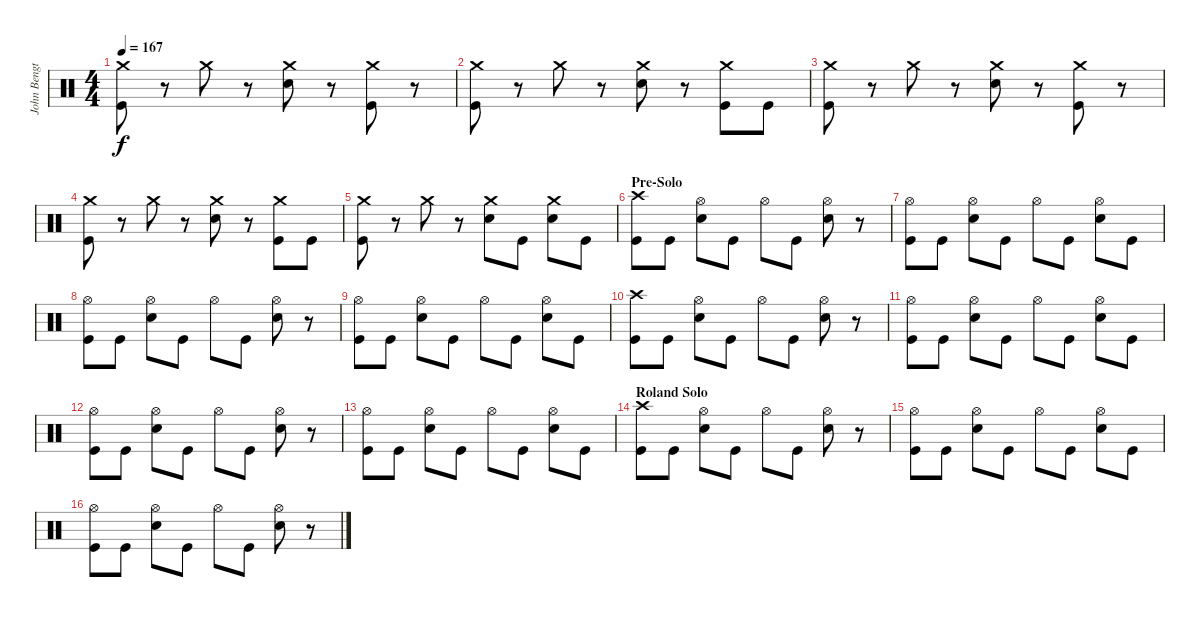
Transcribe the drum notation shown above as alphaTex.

\track ("John Bengtsson" "John Bengt") {instrument percussion}
\staff {score}
\articulation defaults
\ts (4 4)
\tempo 167
\clef neutral
\ks c
("Crash medium (hit)" "Kick (hit)").8{dy f} r.8 "Crash medium (hit)".8 r.8 ("Crash medium (hit)" "Snare (hit) 2").8 r.8 ("Crash medium (hit)" "Kick (hit)").8 r.8 |
("Crash medium (hit)" "Kick (hit)").8 r.8 "Crash medium (hit)".8 r.8 ("Crash medium (hit)" "Snare (hit) 2").8 r.8 ("Crash medium (hit)" "Kick (hit)").8 "Kick (hit)".8 |
("Crash medium (hit)" "Kick (hit)").8 r.8 "Crash medium (hit)".8 r.8 ("Crash medium (hit)" "Snare (hit) 2").8 r.8 ("Crash medium (hit)" "Kick (hit)").8 r.8 |
("Crash medium (hit)" "Kick (hit)").8 r.8 "Crash medium (hit)".8 r.8 ("Crash medium (hit)" "Snare (hit) 2").8 r.8 ("Crash medium (hit)" "Kick (hit)").8 "Kick (hit)".8 |
("Crash medium (hit)" "Kick (hit)").8 r.8 "Crash medium (hit)".8 r.8 ("Crash medium (hit)" "Snare (hit) 2").8 "Kick (hit)".8 ("Crash medium (hit)" "Snare (hit) 2").8 "Kick (hit)".8 |
\section ("" "Pre-Solo")
("Crash high (hit)" "Kick (hit)").8 "Kick (hit)".8 ("Hi-Hat (open)" "Snare (hit) 2").8 "Kick (hit)".8 "Hi-Hat (open)".8 "Kick (hit)".8 ("Hi-Hat (open)" "Snare (hit) 2").8 r.8 |
("Hi-Hat (open)" "Kick (hit)").8 "Kick (hit)".8 ("Hi-Hat (open)" "Snare (hit) 2").8 "Kick (hit)".8 "Hi-Hat (open)".8 "Kick (hit)".8 ("Hi-Hat (open)" "Snare (hit) 2").8 "Kick (hit)".8 |
("Hi-Hat (open)" "Kick (hit)").8 "Kick (hit)".8 ("Hi-Hat (open)" "Snare (hit) 2").8 "Kick (hit)".8 "Hi-Hat (open)".8 "Kick (hit)".8 ("Hi-Hat (open)" "Snare (hit) 2").8 r.8 |
("Hi-Hat (open)" "Kick (hit)").8 "Kick (hit)".8 ("Hi-Hat (open)" "Snare (hit) 2").8 "Kick (hit)".8 "Hi-Hat (open)".8 "Kick (hit)".8 ("Hi-Hat (open)" "Snare (hit) 2").8 "Kick (hit)".8 |
("Crash high (hit)" "Kick (hit)").8 "Kick (hit)".8 ("Hi-Hat (open)" "Snare (hit) 2").8 "Kick (hit)".8 "Hi-Hat (open)".8 "Kick (hit)".8 ("Hi-Hat (open)" "Snare (hit) 2").8 r.8 |
("Hi-Hat (open)" "Kick (hit)").8 "Kick (hit)".8 ("Hi-Hat (open)" "Snare (hit) 2").8 "Kick (hit)".8 "Hi-Hat (open)".8 "Kick (hit)".8 ("Hi-Hat (open)" "Snare (hit) 2").8 "Kick (hit)".8 |
("Hi-Hat (open)" "Kick (hit)").8 "Kick (hit)".8 ("Hi-Hat (open)" "Snare (hit) 2").8 "Kick (hit)".8 "Hi-Hat (open)".8 "Kick (hit)".8 ("Hi-Hat (open)" "Snare (hit) 2").8 r.8 |
("Hi-Hat (open)" "Kick (hit)").8 "Kick (hit)".8 ("Hi-Hat (open)" "Snare (hit) 2").8 "Kick (hit)".8 "Hi-Hat (open)".8 "Kick (hit)".8 ("Hi-Hat (open)" "Snare (hit) 2").8 "Kick (hit)".8 |
\section ("" "Roland Solo")
("Crash high (hit)" "Kick (hit)").8 "Kick (hit)".8 ("Hi-Hat (open)" "Snare (hit) 2").8 "Kick (hit)".8 "Hi-Hat (open)".8 "Kick (hit)".8 ("Hi-Hat (open)" "Snare (hit) 2").8 r.8 |
("Hi-Hat (open)" "Kick (hit)").8 "Kick (hit)".8 ("Hi-Hat (open)" "Snare (hit) 2").8 "Kick (hit)".8 "Hi-Hat (open)".8 "Kick (hit)".8 ("Hi-Hat (open)" "Snare (hit) 2").8 "Kick (hit)".8 |
("Hi-Hat (open)" "Kick (hit)").8 "Kick (hit)".8 ("Hi-Hat (open)" "Snare (hit) 2").8 "Kick (hit)".8 "Hi-Hat (open)".8 "Kick (hit)".8 ("Hi-Hat (open)" "Snare (hit) 2").8 r.8
